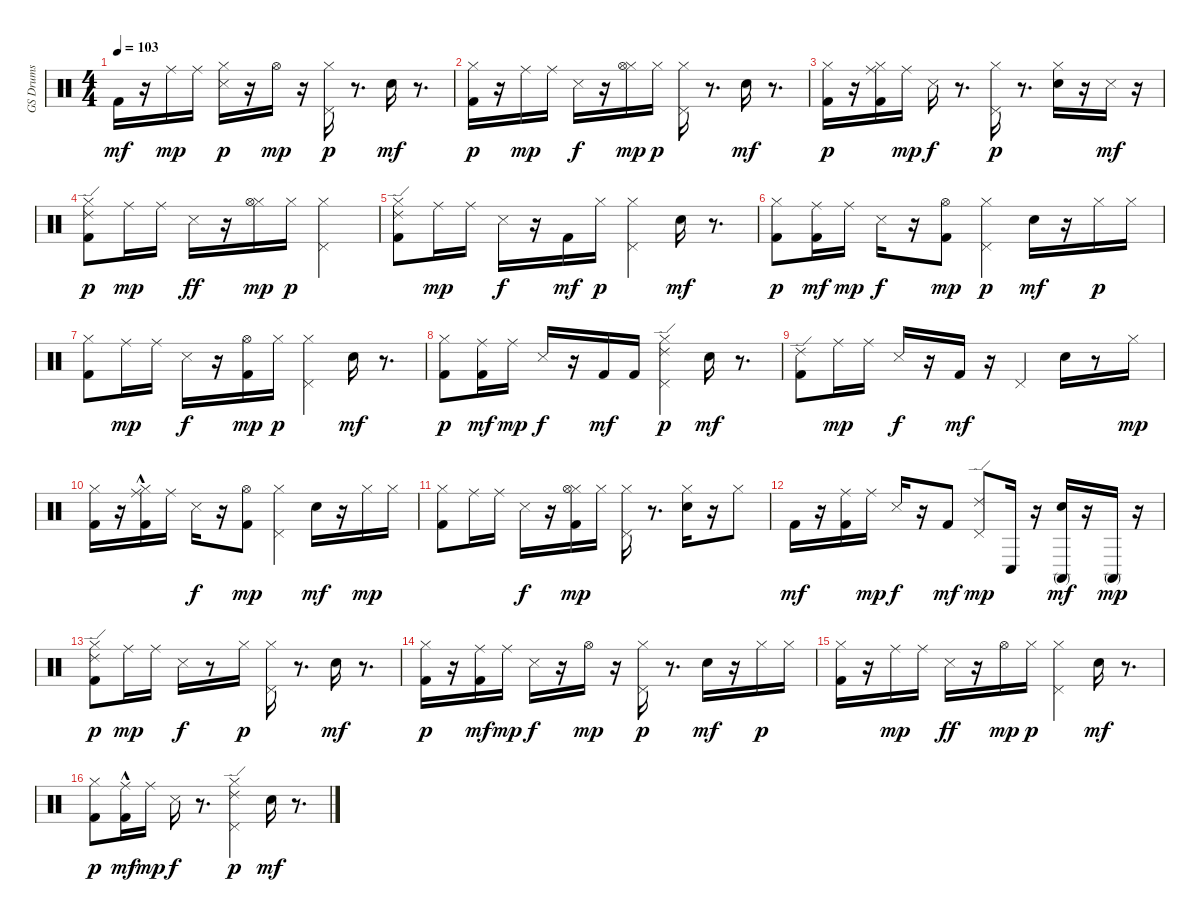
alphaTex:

\track ("GS Drums" "GS Drums") {instrument percussion}
\staff {score}
\articulation defaults
\ts (4 4)
\tempo 103
\clef neutral
\ks c "Kick (hit) 2".16{dy mf}
r.16 "Ride (middle)".16{dy mp} "Ride (middle)".16 ("Hi-Hat (closed)" "Snare (side stick) 3").16{dy p} r.16 "Hi-Hat (open)".16{dy mp} r.16 ("Pedal Hi-Hat (hit)" "Hi-Hat (closed)").16{dy p} r.8{d} "Snare (hit) 2".16{dy mf} r.8{d} |
("Kick (hit) 2" "Hi-Hat (closed)").16{dy p} r.16 "Ride (middle)".16{dy mp} "Ride (middle)".16 "Snare (side stick) 3".16{dy f} r.16 ("Hi-Hat (closed)" "Hi-Hat (open)").16{dy mp} "Hi-Hat (closed)".16{dy p} ("Pedal Hi-Hat (hit)" "Hi-Hat (closed)").16 r.8{d} "Snare (hit) 2".16{dy mf} r.8{d} |
("Kick (hit) 2" "Hi-Hat (closed)").16{dy p} r.16 ("Ride (middle)" "Kick (hit) 2" "Hi-Hat (closed)").16 "Ride (middle)".16{dy mp} "Snare (side stick) 3".16{dy f} r.8{d} ("Pedal Hi-Hat (hit)" "Hi-Hat (closed)").16{dy p} r.8{d} ("Snare (hit) 2" "Hi-Hat (closed)").16 r.16 "Snare (side stick) 3".16{dy mf} r.16 |
("Ride (edge) 2" "Kick (hit) 2" "Hi-Hat (closed)").8{dy p} "Ride (middle)".16{dy mp} "Ride (middle)".16 "Snare (side stick) 3".16{dy ff} r.16 ("Hi-Hat (closed)" "Hi-Hat (open)").16{dy mp} "Hi-Hat (closed)".16{dy p} ("Pedal Hi-Hat (hit)" "Hi-Hat (closed)").2 |
("Ride (edge) 2" "Kick (hit) 2" "Hi-Hat (closed)").8 "Ride (middle)".16{dy mp} "Ride (middle)".16 "Snare (side stick) 3".16{dy f} r.16 "Kick (hit) 2".16{dy mf} "Hi-Hat (closed)".16{dy p} ("Pedal Hi-Hat (hit)" "Hi-Hat (closed)").4 "Snare (hit) 2".16{dy mf} r.8{d} |
("Kick (hit) 2" "Hi-Hat (closed)").8{dy p} ("Ride (middle)" "Kick (hit) 2").16{dy mf} "Ride (middle)".16{dy mp} "Snare (side stick) 3".16{dy f} r.16 ("Kick (hit) 2" "Hi-Hat (open)").8{dy mp} ("Pedal Hi-Hat (hit)" "Hi-Hat (closed)").4{dy p} "Snare (hit) 2".16{dy mf} r.16 "Hi-Hat (closed)".16{dy p} "Hi-Hat (closed)".16 |
("Kick (hit) 2" "Hi-Hat (closed)").8 "Ride (middle)".16{dy mp} "Ride (middle)".16 "Snare (side stick) 3".16{dy f} r.16 ("Kick (hit) 2" "Hi-Hat (open)").16{dy mp} "Hi-Hat (closed)".16{dy p} ("Pedal Hi-Hat (hit)" "Hi-Hat (closed)").4 "Snare (hit) 2".16{dy mf} r.8{d} |
("Kick (hit) 2" "Hi-Hat (closed)").8{dy p} ("Ride (middle)" "Kick (hit) 2").16{dy mf} "Ride (middle)".16{dy mp} "Snare (side stick) 3".16{dy f} r.16 "Kick (hit) 2".16{dy mf} "Kick (hit) 2".16 ("Pedal Hi-Hat (hit)" "Ride (edge) 2" "Hi-Hat (closed)").4{dy p} "Snare (hit) 2".16{dy mf} r.8{d} |
("Ride (edge) 2" "Kick (hit) 2").8 "Ride (middle)".16{dy mp} "Ride (middle)".16 "Snare (side stick) 3".16{dy f} r.16 "Kick (hit) 2".16{dy mf} r.16 "Pedal Hi-Hat (hit)".4 "Snare (hit) 2".16 r.8 "Hi-Hat (closed)".16{dy mp} |
("Kick (hit) 2" "Hi-Hat (closed)").16 r.16 ("Ride (middle)" "Kick (hit) 2" "Hi-Hat (closed)"{hac}).16 "Ride (middle)".16 "Snare (side stick) 3".16{dy f} r.16 ("Kick (hit) 2" "Hi-Hat (open)").8{dy mp} ("Pedal Hi-Hat (hit)" "Hi-Hat (closed)").4 "Snare (hit) 2".16{dy mf} r.16 "Hi-Hat (closed)".16{dy mp} "Hi-Hat (closed)".16 |
("Kick (hit) 2" "Hi-Hat (closed)").8 "Ride (middle)".16 "Ride (middle)".16 "Snare (side stick) 3".16{dy f} r.16 ("Kick (hit) 2" "Hi-Hat (closed)" "Hi-Hat (open)").16{dy mp} "Hi-Hat (closed)".16 ("Pedal Hi-Hat (hit)" "Hi-Hat (closed)").16 r.8{d} ("Snare (hit) 2" "Hi-Hat (closed)").16 r.16 "Hi-Hat (closed)".8 |
"Kick (hit) 2".16{dy mf} r.16 ("Ride (middle)" "Kick (hit) 2").16 "Ride (middle)".16{dy mp} "Snare (side stick) 3".16{dy f} r.16 "Kick (hit) 2".8{dy mf} ("Pedal Hi-Hat (hit)" "Ride (edge) 2").8{dy mp} "Conga low (hit)".16 r.16 ("Conga high (mute)" "Snare (hit) 2").16{dy mf} r.16 "Conga high (mute)".16{dy mp} r.16 |
("Ride (edge) 2" "Kick (hit) 2" "Hi-Hat (closed)").8{dy p} "Ride (middle)".16{dy mp} "Ride (middle)".16 "Snare (side stick) 3".16{dy f} r.8 "Hi-Hat (closed)".16{dy p} ("Pedal Hi-Hat (hit)" "Hi-Hat (closed)").16 r.8{d} "Snare (hit) 2".16{dy mf} r.8{d} |
("Kick (hit) 2" "Hi-Hat (closed)").16{dy p} r.16 ("Ride (middle)" "Kick (hit) 2").16{dy mf} "Ride (middle)".16{dy mp} "Snare (side stick) 3".16{dy f} r.16 "Hi-Hat (open)".16{dy mp} r.16 ("Pedal Hi-Hat (hit)" "Hi-Hat (closed)").16{dy p} r.8{d} "Snare (hit) 2".16{dy mf} r.16 "Hi-Hat (closed)".16{dy p} "Hi-Hat (closed)".16 |
("Kick (hit) 2" "Hi-Hat (closed)").16 r.16 "Ride (middle)".16{dy mp} "Ride (middle)".16 "Snare (side stick) 3".16{dy ff} r.16 "Hi-Hat (open)".16{dy mp} "Hi-Hat (closed)".16{dy p} ("Pedal Hi-Hat (hit)" "Hi-Hat (closed)").4 "Snare (hit) 2".16{dy mf} r.8{d} |
("Kick (hit) 2" "Hi-Hat (closed)").8{dy p} ("Ride (middle)" "Kick (hit) 2"{hac}).16{dy mf} "Ride (middle)".16{dy mp} "Snare (side stick) 3".16{dy f} r.8{d} ("Pedal Hi-Hat (hit)" "Ride (edge) 2" "Hi-Hat (closed)").4{dy p} "Snare (hit) 2".16{dy mf} r.8{d}
